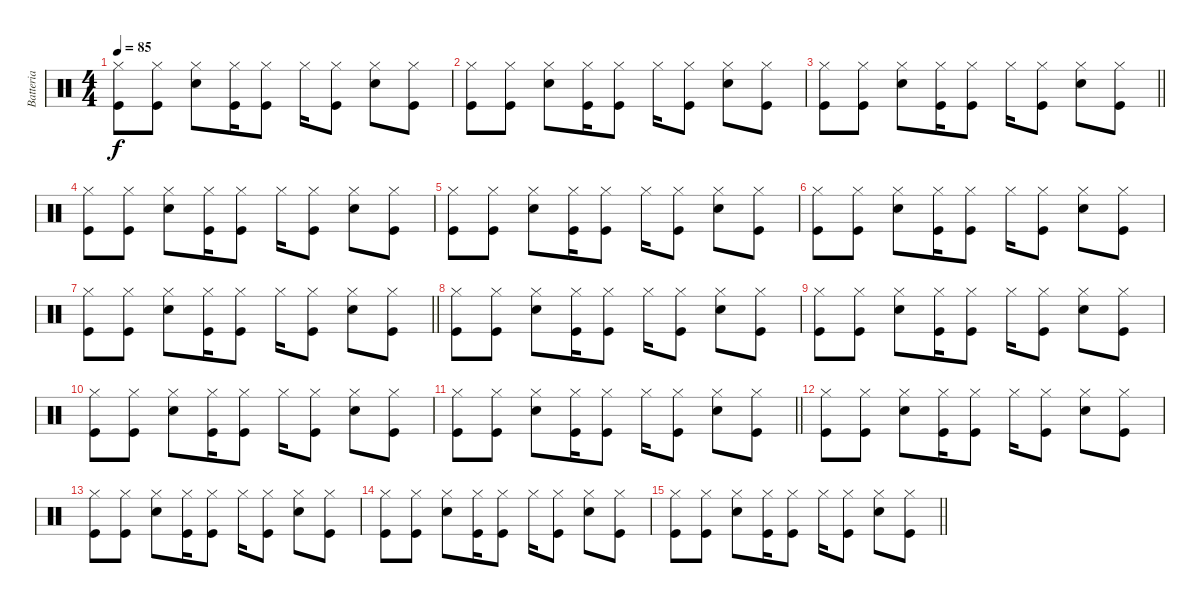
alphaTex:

\track ("Batteria" "Batteria") {instrument percussion}
\staff {score}
\articulation defaults
\ts (4 4)
\tempo 85
\clef neutral
\ks c
("Kick (hit)" "Hi-Hat (closed)").8{dy f} ("Kick (hit)" "Hi-Hat (closed)").8 ("Snare (hit) 2" "Hi-Hat (closed)").8 ("Kick (hit)" "Hi-Hat (closed)").16 ("Kick (hit)" "Hi-Hat (closed)").8 "Hi-Hat (closed)".16 ("Kick (hit)" "Hi-Hat (closed)").8 ("Snare (hit) 2" "Hi-Hat (closed)").8 ("Kick (hit)" "Hi-Hat (closed)").8 |
("Kick (hit)" "Hi-Hat (closed)").8 ("Kick (hit)" "Hi-Hat (closed)").8 ("Snare (hit) 2" "Hi-Hat (closed)").8 ("Kick (hit)" "Hi-Hat (closed)").16 ("Kick (hit)" "Hi-Hat (closed)").8 "Hi-Hat (closed)".16 ("Kick (hit)" "Hi-Hat (closed)").8 ("Snare (hit) 2" "Hi-Hat (closed)").8 ("Kick (hit)" "Hi-Hat (closed)").8 |
\barLineRight lightlight
("Kick (hit)" "Hi-Hat (closed)").8 ("Kick (hit)" "Hi-Hat (closed)").8 ("Snare (hit) 2" "Hi-Hat (closed)").8 ("Kick (hit)" "Hi-Hat (closed)").16 ("Kick (hit)" "Hi-Hat (closed)").8 "Hi-Hat (closed)".16 ("Kick (hit)" "Hi-Hat (closed)").8 ("Snare (hit) 2" "Hi-Hat (closed)").8 ("Kick (hit)" "Hi-Hat (closed)").8 |
("Kick (hit)" "Hi-Hat (closed)").8 ("Kick (hit)" "Hi-Hat (closed)").8 ("Snare (hit) 2" "Hi-Hat (closed)").8 ("Kick (hit)" "Hi-Hat (closed)").16 ("Kick (hit)" "Hi-Hat (closed)").8 "Hi-Hat (closed)".16 ("Kick (hit)" "Hi-Hat (closed)").8 ("Snare (hit) 2" "Hi-Hat (closed)").8 ("Kick (hit)" "Hi-Hat (closed)").8 |
("Kick (hit)" "Hi-Hat (closed)").8 ("Kick (hit)" "Hi-Hat (closed)").8 ("Snare (hit) 2" "Hi-Hat (closed)").8 ("Kick (hit)" "Hi-Hat (closed)").16 ("Kick (hit)" "Hi-Hat (closed)").8 "Hi-Hat (closed)".16 ("Kick (hit)" "Hi-Hat (closed)").8 ("Snare (hit) 2" "Hi-Hat (closed)").8 ("Kick (hit)" "Hi-Hat (closed)").8 |
("Kick (hit)" "Hi-Hat (closed)").8 ("Kick (hit)" "Hi-Hat (closed)").8 ("Snare (hit) 2" "Hi-Hat (closed)").8 ("Kick (hit)" "Hi-Hat (closed)").16 ("Kick (hit)" "Hi-Hat (closed)").8 "Hi-Hat (closed)".16 ("Kick (hit)" "Hi-Hat (closed)").8 ("Snare (hit) 2" "Hi-Hat (closed)").8 ("Kick (hit)" "Hi-Hat (closed)").8 |
\barLineRight lightlight
("Kick (hit)" "Hi-Hat (closed)").8 ("Kick (hit)" "Hi-Hat (closed)").8 ("Snare (hit) 2" "Hi-Hat (closed)").8 ("Kick (hit)" "Hi-Hat (closed)").16 ("Kick (hit)" "Hi-Hat (closed)").8 "Hi-Hat (closed)".16 ("Kick (hit)" "Hi-Hat (closed)").8 ("Snare (hit) 2" "Hi-Hat (closed)").8 ("Kick (hit)" "Hi-Hat (closed)").8 |
("Kick (hit)" "Hi-Hat (closed)").8 ("Kick (hit)" "Hi-Hat (closed)").8 ("Snare (hit) 2" "Hi-Hat (closed)").8 ("Kick (hit)" "Hi-Hat (closed)").16 ("Kick (hit)" "Hi-Hat (closed)").8 "Hi-Hat (closed)".16 ("Kick (hit)" "Hi-Hat (closed)").8 ("Snare (hit) 2" "Hi-Hat (closed)").8 ("Kick (hit)" "Hi-Hat (closed)").8 |
("Kick (hit)" "Hi-Hat (closed)").8 ("Kick (hit)" "Hi-Hat (closed)").8 ("Snare (hit) 2" "Hi-Hat (closed)").8 ("Kick (hit)" "Hi-Hat (closed)").16 ("Kick (hit)" "Hi-Hat (closed)").8 "Hi-Hat (closed)".16 ("Kick (hit)" "Hi-Hat (closed)").8 ("Snare (hit) 2" "Hi-Hat (closed)").8 ("Kick (hit)" "Hi-Hat (closed)").8 |
("Kick (hit)" "Hi-Hat (closed)").8 ("Kick (hit)" "Hi-Hat (closed)").8 ("Snare (hit) 2" "Hi-Hat (closed)").8 ("Kick (hit)" "Hi-Hat (closed)").16 ("Kick (hit)" "Hi-Hat (closed)").8 "Hi-Hat (closed)".16 ("Kick (hit)" "Hi-Hat (closed)").8 ("Snare (hit) 2" "Hi-Hat (closed)").8 ("Kick (hit)" "Hi-Hat (closed)").8 |
\barLineRight lightlight
("Kick (hit)" "Hi-Hat (closed)").8 ("Kick (hit)" "Hi-Hat (closed)").8 ("Snare (hit) 2" "Hi-Hat (closed)").8 ("Kick (hit)" "Hi-Hat (closed)").16 ("Kick (hit)" "Hi-Hat (closed)").8 "Hi-Hat (closed)".16 ("Kick (hit)" "Hi-Hat (closed)").8 ("Snare (hit) 2" "Hi-Hat (closed)").8 ("Kick (hit)" "Hi-Hat (closed)").8 |
("Kick (hit)" "Hi-Hat (closed)").8 ("Kick (hit)" "Hi-Hat (closed)").8 ("Snare (hit) 2" "Hi-Hat (closed)").8 ("Kick (hit)" "Hi-Hat (closed)").16 ("Kick (hit)" "Hi-Hat (closed)").8 "Hi-Hat (closed)".16 ("Kick (hit)" "Hi-Hat (closed)").8 ("Snare (hit) 2" "Hi-Hat (closed)").8 ("Kick (hit)" "Hi-Hat (closed)").8 |
("Kick (hit)" "Hi-Hat (closed)").8 ("Kick (hit)" "Hi-Hat (closed)").8 ("Snare (hit) 2" "Hi-Hat (closed)").8 ("Kick (hit)" "Hi-Hat (closed)").16 ("Kick (hit)" "Hi-Hat (closed)").8 "Hi-Hat (closed)".16 ("Kick (hit)" "Hi-Hat (closed)").8 ("Snare (hit) 2" "Hi-Hat (closed)").8 ("Kick (hit)" "Hi-Hat (closed)").8 |
("Kick (hit)" "Hi-Hat (closed)").8 ("Kick (hit)" "Hi-Hat (closed)").8 ("Snare (hit) 2" "Hi-Hat (closed)").8 ("Kick (hit)" "Hi-Hat (closed)").16 ("Kick (hit)" "Hi-Hat (closed)").8 "Hi-Hat (closed)".16 ("Kick (hit)" "Hi-Hat (closed)").8 ("Snare (hit) 2" "Hi-Hat (closed)").8 ("Kick (hit)" "Hi-Hat (closed)").8 |
\barLineRight lightlight
("Kick (hit)" "Hi-Hat (closed)").8 ("Kick (hit)" "Hi-Hat (closed)").8 ("Snare (hit) 2" "Hi-Hat (closed)").8 ("Kick (hit)" "Hi-Hat (closed)").16 ("Kick (hit)" "Hi-Hat (closed)").8 "Hi-Hat (closed)".16 ("Kick (hit)" "Hi-Hat (closed)").8 ("Snare (hit) 2" "Hi-Hat (closed)").8 ("Kick (hit)" "Hi-Hat (closed)").8
